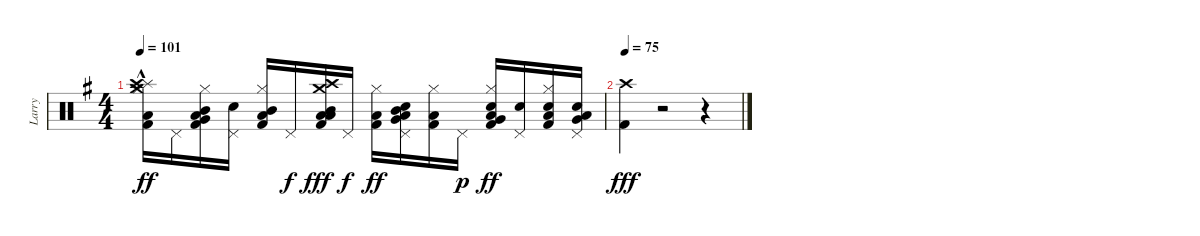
\track ("Larry" "Larry") {instrument percussion}
\staff {score}
\articulation defaults
\ts (4 4)
\tempo 101
\clef neutral
\ks eminor
("Low Floor Tom (hit)" "Kick (hit) 2" "Crash medium (hit)" "Splash (hit)"{hac} "Crash high (hit)" "Hi-Hat (closed)").16{dy ff} "Pedal Hi-Hat (hit)".16 ("Kick (hit) 2" "Low Floor Tom (hit)" "Very Low Tom (hit)" "Mid Tom (hit)" "Hi-Hat (closed)").16 ("Snare (hit) 2" "Pedal Hi-Hat (hit)").16 ("Kick (hit) 2" "Low Floor Tom (hit)" "Mid Tom (hit)" "Hi-Hat (closed)").16 "Pedal Hi-Hat (hit)".16{dy f} ("Low Floor Tom (hit)" "Kick (hit) 2" "Low Tom (hit)" "Mid Tom (hit)" "Crash high (hit)" "Crash medium (hit)").16{dy fff} "Pedal Hi-Hat (hit)".16{dy f} ("Kick (hit) 2" "Low Floor Tom (hit)" "Hi-Hat (closed)").16{dy ff} ("Very Low Tom (hit)" "Low Tom (hit)" "Mid Tom (hit)" "Snare (hit) 2" "Pedal Hi-Hat (hit)").16 ("Kick (hit) 2" "Low Floor Tom (hit)" "Hi-Hat (closed)").16 "Pedal Hi-Hat (hit)".16{dy p} ("Kick (hit) 2" "Low Floor Tom (hit)" "Very Low Tom (hit)" "Snare (hit) 2" "Hi-Hat (closed)").16{dy ff} ("Snare (hit) 2" "Pedal Hi-Hat (hit)").16 ("Kick (hit) 2" "Low Floor Tom (hit)" "Snare (hit) 2" "Hi-Hat (closed)").16 ("Low Tom (hit)" "Very Low Tom (hit)" "Snare (hit) 2" "Pedal Hi-Hat (hit)").16 |
\tempo 75
("Kick (hit) 2" "Crash high (hit)").4{dy fff} r.2 r.4
